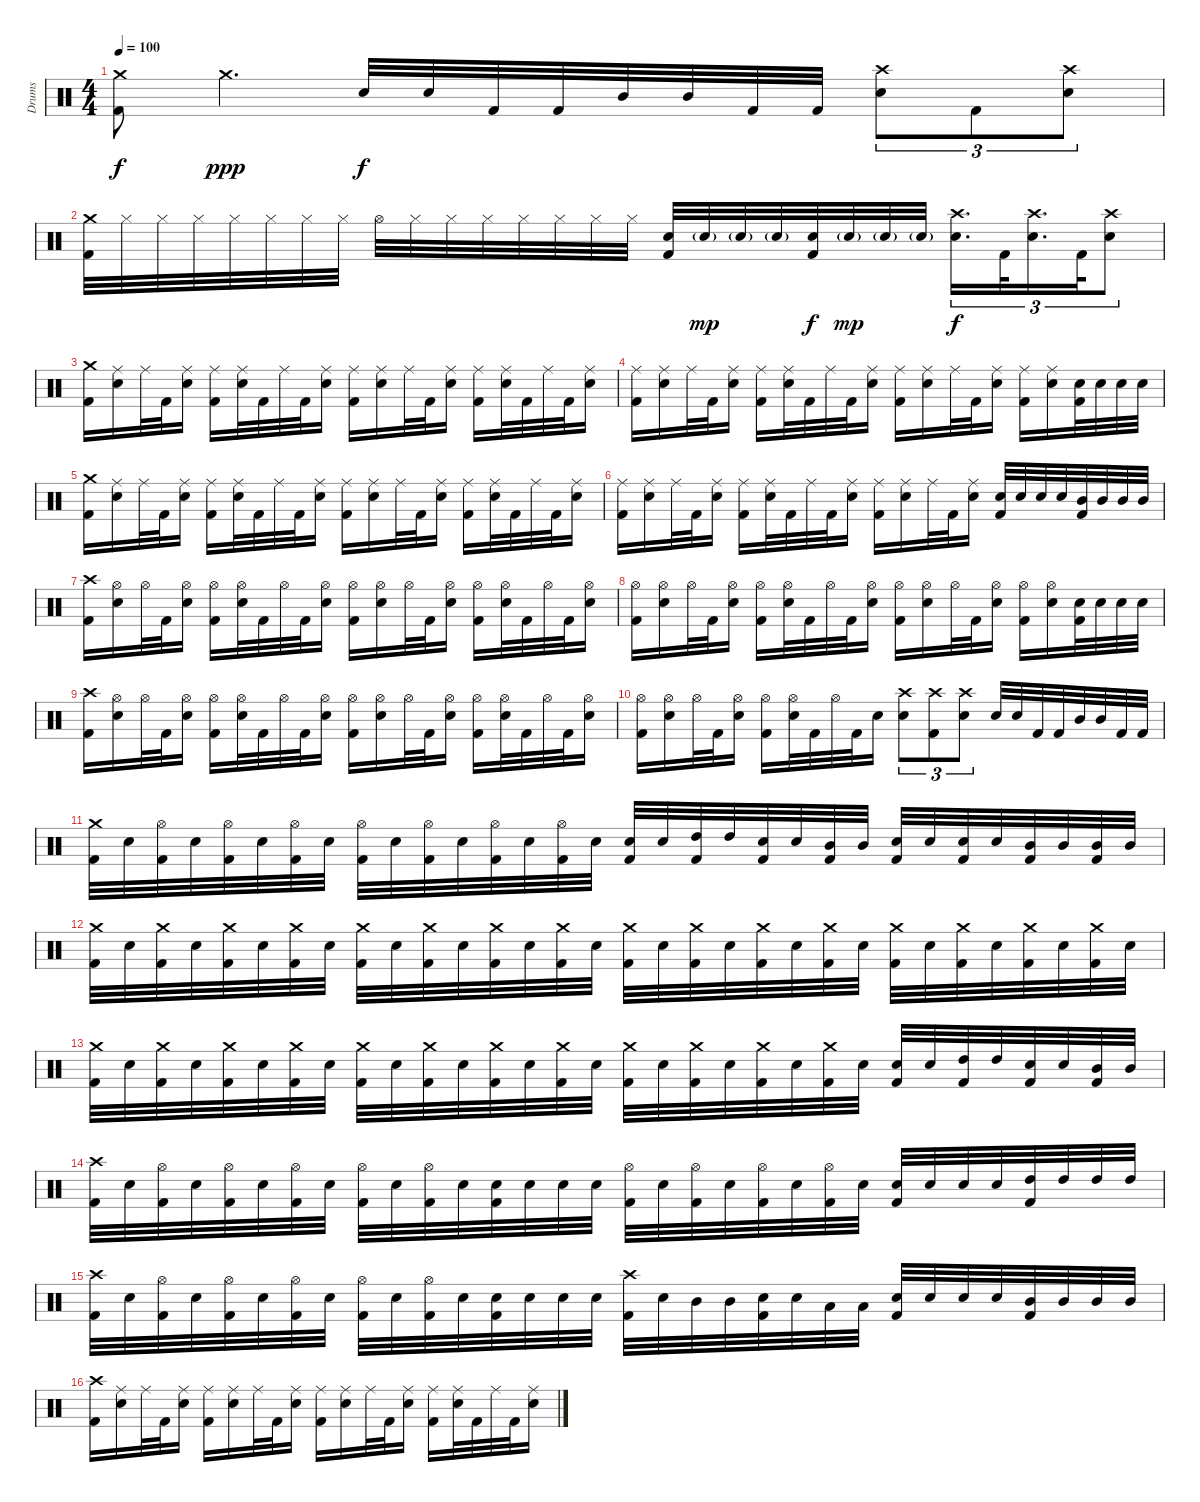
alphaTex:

\track ("Drums" "Drums") {instrument percussion}
\staff {score}
\articulation defaults
\ts (4 4)
\tempo 100
\clef neutral
\ks c
("Crash medium (hit)" "Kick (hit) 2").8{dy f} "Crash medium (hit)".4{d dy ppp} "Electric Snare (hit)".32{dy f} "Electric Snare (hit)".32 "Kick (hit) 2".32 "Kick (hit) 2".32 "Mid Tom (hit)".32 "Mid Tom (hit)".32 "Kick (hit) 2".32 "Kick (hit) 2".32 ("Crash high (hit)" "Electric Snare (hit)").8{tu (3 2)} "Kick (hit) 2".8{tu (3 2)} ("Crash high (hit)" "Electric Snare (hit)").8{tu (3 2)} |
("Crash medium (hit)" "Kick (hit) 2").32 "Hi-Hat (closed)".32 "Hi-Hat (closed)".32 "Hi-Hat (closed)".32 "Hi-Hat (closed)".32 "Hi-Hat (closed)".32 "Hi-Hat (closed)".32 "Hi-Hat (closed)".32 "Hi-Hat (open)".32 "Hi-Hat (closed)".32 "Hi-Hat (closed)".32 "Hi-Hat (closed)".32 "Hi-Hat (closed)".32 "Hi-Hat (closed)".32 "Hi-Hat (closed)".32 "Hi-Hat (closed)".32 ("Electric Snare (hit)" "Kick (hit) 2").32 "Electric Snare (hit)"{g}.32{dy mp} "Electric Snare (hit)"{g}.32 "Electric Snare (hit)"{g}.32 ("Electric Snare (hit)" "Kick (hit) 2").32{dy f} "Electric Snare (hit)"{g}.32{dy mp} "Electric Snare (hit)"{g}.32 "Electric Snare (hit)"{g}.32 ("Crash high (hit)" "Electric Snare (hit)").16{d tu (3 2) dy f} "Kick (hit) 2".32{tu (3 2)} ("Crash high (hit)" "Electric Snare (hit)").16{d tu (3 2)} "Kick (hit) 2".32{tu (3 2)} ("Crash high (hit)" "Electric Snare (hit)").8{tu (3 2)} |
("Crash medium (hit)" "Kick (hit) 2").16 ("Ride (middle)" "Electric Snare (hit)").16 "Ride (middle)".32 "Kick (hit) 2".32 ("Ride (middle)" "Electric Snare (hit)").16 ("Ride (middle)" "Kick (hit) 2").16 ("Ride (middle)" "Electric Snare (hit)").32 "Kick (hit) 2".32 "Ride (middle)".32 "Kick (hit) 2".32 ("Ride (middle)" "Electric Snare (hit)").16 ("Ride (middle)" "Kick (hit) 2").16 ("Ride (middle)" "Electric Snare (hit)").16 "Ride (middle)".32 "Kick (hit) 2".32 ("Ride (middle)" "Electric Snare (hit)").16 ("Ride (middle)" "Kick (hit) 2").16 ("Ride (middle)" "Electric Snare (hit)").32 "Kick (hit) 2".32 "Ride (middle)".32 "Kick (hit) 2".32 ("Ride (middle)" "Electric Snare (hit)").16 |
("Ride (middle)" "Kick (hit) 2").16 ("Ride (middle)" "Electric Snare (hit)").16 "Ride (middle)".32 "Kick (hit) 2".32 ("Ride (middle)" "Electric Snare (hit)").16 ("Ride (middle)" "Kick (hit) 2").16 ("Ride (middle)" "Electric Snare (hit)").32 "Kick (hit) 2".32 "Ride (middle)".32 "Kick (hit) 2".32 ("Ride (middle)" "Electric Snare (hit)").16 ("Ride (middle)" "Kick (hit) 2").16 ("Ride (middle)" "Electric Snare (hit)").16 "Ride (middle)".32 "Kick (hit) 2".32 ("Ride (middle)" "Electric Snare (hit)").16 ("Ride (middle)" "Kick (hit) 2").16 ("Ride (middle)" "Electric Snare (hit)").16 ("Electric Snare (hit)" "Kick (hit) 2").32 "Electric Snare (hit)".32 "Electric Snare (hit)".32 "Electric Snare (hit)".32 |
("Crash medium (hit)" "Kick (hit) 2").16 ("Ride (middle)" "Electric Snare (hit)").16 "Ride (middle)".32 "Kick (hit) 2".32 ("Ride (middle)" "Electric Snare (hit)").16 ("Ride (middle)" "Kick (hit) 2").16 ("Ride (middle)" "Electric Snare (hit)").32 "Kick (hit) 2".32 "Ride (middle)".32 "Kick (hit) 2".32 ("Ride (middle)" "Electric Snare (hit)").16 ("Ride (middle)" "Kick (hit) 2").16 ("Ride (middle)" "Electric Snare (hit)").16 "Ride (middle)".32 "Kick (hit) 2".32 ("Ride (middle)" "Electric Snare (hit)").16 ("Ride (middle)" "Kick (hit) 2").16 ("Ride (middle)" "Electric Snare (hit)").32 "Kick (hit) 2".32 "Ride (middle)".32 "Kick (hit) 2".32 ("Ride (middle)" "Electric Snare (hit)").16 |
("Ride (middle)" "Kick (hit) 2").16 ("Ride (middle)" "Electric Snare (hit)").16 "Ride (middle)".32 "Kick (hit) 2".32 ("Ride (middle)" "Electric Snare (hit)").16 ("Ride (middle)" "Kick (hit) 2").16 ("Ride (middle)" "Electric Snare (hit)").32 "Kick (hit) 2".32 "Ride (middle)".32 "Kick (hit) 2".32 ("Ride (middle)" "Electric Snare (hit)").16 ("Ride (middle)" "Kick (hit) 2").16 ("Ride (middle)" "Electric Snare (hit)").16 "Ride (middle)".32 "Kick (hit) 2".32 ("Ride (middle)" "Electric Snare (hit)").16 ("Electric Snare (hit)" "Kick (hit) 2").32 "Electric Snare (hit)".32 "Electric Snare (hit)".32 "Electric Snare (hit)".32 ("Mid Tom (hit)" "Kick (hit) 2").32 "Mid Tom (hit)".32 "Mid Tom (hit)".32 "Mid Tom (hit)".32 |
("Crash high (hit)" "Kick (hit) 2").16 ("Hi-Hat (open)" "Electric Snare (hit)").16 "Hi-Hat (open)".32 "Kick (hit) 2".32 ("Hi-Hat (open)" "Electric Snare (hit)").16 ("Hi-Hat (open)" "Kick (hit) 2").16 ("Hi-Hat (open)" "Electric Snare (hit)").32 "Kick (hit) 2".32 "Hi-Hat (open)".32 "Kick (hit) 2".32 ("Hi-Hat (open)" "Electric Snare (hit)").16 ("Hi-Hat (open)" "Kick (hit) 2").16 ("Hi-Hat (open)" "Electric Snare (hit)").16 "Hi-Hat (open)".32 "Kick (hit) 2".32 ("Hi-Hat (open)" "Electric Snare (hit)").16 ("Hi-Hat (open)" "Kick (hit) 2").16 ("Hi-Hat (open)" "Electric Snare (hit)").32 "Kick (hit) 2".32 "Hi-Hat (open)".32 "Kick (hit) 2".32 ("Hi-Hat (open)" "Electric Snare (hit)").16 |
("Hi-Hat (open)" "Kick (hit) 2").16 ("Hi-Hat (open)" "Electric Snare (hit)").16 "Hi-Hat (open)".32 "Kick (hit) 2".32 ("Hi-Hat (open)" "Electric Snare (hit)").16 ("Hi-Hat (open)" "Kick (hit) 2").16 ("Hi-Hat (open)" "Electric Snare (hit)").32 "Kick (hit) 2".32 "Hi-Hat (open)".32 "Kick (hit) 2".32 ("Hi-Hat (open)" "Electric Snare (hit)").16 ("Hi-Hat (open)" "Kick (hit) 2").16 ("Hi-Hat (open)" "Electric Snare (hit)").16 "Hi-Hat (open)".32 "Kick (hit) 2".32 ("Hi-Hat (open)" "Electric Snare (hit)").16 ("Hi-Hat (open)" "Kick (hit) 2").16 ("Hi-Hat (open)" "Electric Snare (hit)").16 ("Electric Snare (hit)" "Kick (hit) 2").32 "Electric Snare (hit)".32 "Electric Snare (hit)".32 "Electric Snare (hit)".32 |
("Crash high (hit)" "Kick (hit) 2").16 ("Hi-Hat (open)" "Electric Snare (hit)").16 "Hi-Hat (open)".32 "Kick (hit) 2".32 ("Hi-Hat (open)" "Electric Snare (hit)").16 ("Hi-Hat (open)" "Kick (hit) 2").16 ("Hi-Hat (open)" "Electric Snare (hit)").32 "Kick (hit) 2".32 "Hi-Hat (open)".32 "Kick (hit) 2".32 ("Hi-Hat (open)" "Electric Snare (hit)").16 ("Hi-Hat (open)" "Kick (hit) 2").16 ("Hi-Hat (open)" "Electric Snare (hit)").16 "Hi-Hat (open)".32 "Kick (hit) 2".32 ("Hi-Hat (open)" "Electric Snare (hit)").16 ("Hi-Hat (open)" "Kick (hit) 2").16 ("Hi-Hat (open)" "Electric Snare (hit)").32 "Kick (hit) 2".32 "Hi-Hat (open)".32 "Kick (hit) 2".32 ("Hi-Hat (open)" "Electric Snare (hit)").16 |
("Hi-Hat (open)" "Kick (hit) 2").16 ("Hi-Hat (open)" "Electric Snare (hit)").16 "Hi-Hat (open)".32 "Kick (hit) 2".32 ("Hi-Hat (open)" "Electric Snare (hit)").16 ("Hi-Hat (open)" "Kick (hit) 2").16 ("Hi-Hat (open)" "Electric Snare (hit)").32 "Kick (hit) 2".32 "Hi-Hat (open)".32 "Kick (hit) 2".32 "Electric Snare (hit)".16 ("Crash high (hit)" "Electric Snare (hit)").8{tu (3 2)} ("Crash high (hit)" "Kick (hit) 2").8{tu (3 2)} ("Crash high (hit)" "Electric Snare (hit)").8{tu (3 2)} "Electric Snare (hit)".32 "Electric Snare (hit)".32 "Kick (hit) 2".32 "Kick (hit) 2".32 "Mid Tom (hit)".32 "Mid Tom (hit)".32 "Kick (hit) 2".32 "Kick (hit) 2".32 |
("Crash medium (hit)" "Kick (hit) 2").32 "Electric Snare (hit)".32 ("Hi-Hat (open)" "Kick (hit) 2").32 "Electric Snare (hit)".32 ("Hi-Hat (open)" "Kick (hit) 2").32 "Electric Snare (hit)".32 ("Hi-Hat (open)" "Kick (hit) 2").32 "Electric Snare (hit)".32 ("Hi-Hat (open)" "Kick (hit) 2").32 "Electric Snare (hit)".32 ("Hi-Hat (open)" "Kick (hit) 2").32 "Electric Snare (hit)".32 ("Hi-Hat (open)" "Kick (hit) 2").32 "Electric Snare (hit)".32 ("Hi-Hat (open)" "Kick (hit) 2").32 "Electric Snare (hit)".32 ("Electric Snare (hit)" "Kick (hit) 2").32 "Electric Snare (hit)".32 ("High Tom (hit)" "Kick (hit) 2").32 "High Tom (hit)".32 ("Electric Snare (hit)" "Kick (hit) 2").32 "Electric Snare (hit)".32 ("Mid Tom (hit)" "Kick (hit) 2").32 "Mid Tom (hit)".32 ("Electric Snare (hit)" "Kick (hit) 2").32 "Electric Snare (hit)".32 ("Electric Snare (hit)" "Kick (hit) 2").32 "Electric Snare (hit)".32 ("Mid Tom (hit)" "Kick (hit) 2").32 "Mid Tom (hit)".32 ("Mid Tom (hit)" "Kick (hit) 2").32 "Mid Tom (hit)".32 |
("Crash medium (hit)" "Kick (hit) 2").32 "Electric Snare (hit)".32 ("Crash medium (hit)" "Kick (hit) 2").32 "Electric Snare (hit)".32 ("Crash medium (hit)" "Kick (hit) 2").32 "Electric Snare (hit)".32 ("Crash medium (hit)" "Kick (hit) 2").32 "Electric Snare (hit)".32 ("Crash medium (hit)" "Kick (hit) 2").32 "Electric Snare (hit)".32 ("Crash medium (hit)" "Kick (hit) 2").32 "Electric Snare (hit)".32 ("Crash medium (hit)" "Kick (hit) 2").32 "Electric Snare (hit)".32 ("Crash medium (hit)" "Kick (hit) 2").32 "Electric Snare (hit)".32 ("Crash medium (hit)" "Kick (hit) 2").32 "Electric Snare (hit)".32 ("Crash medium (hit)" "Kick (hit) 2").32 "Electric Snare (hit)".32 ("Crash medium (hit)" "Kick (hit) 2").32 "Electric Snare (hit)".32 ("Crash medium (hit)" "Kick (hit) 2").32 "Electric Snare (hit)".32 ("Crash medium (hit)" "Kick (hit) 2").32 "Electric Snare (hit)".32 ("Crash medium (hit)" "Kick (hit) 2").32 "Electric Snare (hit)".32 ("Crash medium (hit)" "Kick (hit) 2").32 "Electric Snare (hit)".32 ("Crash medium (hit)" "Kick (hit) 2").32 "Electric Snare (hit)".32 |
("Crash medium (hit)" "Kick (hit) 2").32 "Electric Snare (hit)".32 ("Crash medium (hit)" "Kick (hit) 2").32 "Electric Snare (hit)".32 ("Crash medium (hit)" "Kick (hit) 2").32 "Electric Snare (hit)".32 ("Crash medium (hit)" "Kick (hit) 2").32 "Electric Snare (hit)".32 ("Crash medium (hit)" "Kick (hit) 2").32 "Electric Snare (hit)".32 ("Crash medium (hit)" "Kick (hit) 2").32 "Electric Snare (hit)".32 ("Crash medium (hit)" "Kick (hit) 2").32 "Electric Snare (hit)".32 ("Crash medium (hit)" "Kick (hit) 2").32 "Electric Snare (hit)".32 ("Crash medium (hit)" "Kick (hit) 2").32 "Electric Snare (hit)".32 ("Crash medium (hit)" "Kick (hit) 2").32 "Electric Snare (hit)".32 ("Crash medium (hit)" "Kick (hit) 2").32 "Electric Snare (hit)".32 ("Crash medium (hit)" "Kick (hit) 2").32 "Electric Snare (hit)".32 ("Electric Snare (hit)" "Kick (hit) 2").32 "Electric Snare (hit)".32 ("High Tom (hit)" "Kick (hit) 2").32 "High Tom (hit)".32 ("Electric Snare (hit)" "Kick (hit) 2").32 "Electric Snare (hit)".32 ("Mid Tom (hit)" "Kick (hit) 2").32 "Mid Tom (hit)".32 |
("Crash high (hit)" "Kick (hit) 2").32 "Electric Snare (hit)".32 ("Hi-Hat (open)" "Kick (hit) 2").32 "Electric Snare (hit)".32 ("Hi-Hat (open)" "Kick (hit) 2").32 "Electric Snare (hit)".32 ("Hi-Hat (open)" "Kick (hit) 2").32 "Electric Snare (hit)".32 ("Hi-Hat (open)" "Kick (hit) 2").32 "Electric Snare (hit)".32 ("Hi-Hat (open)" "Kick (hit) 2").32 "Electric Snare (hit)".32 ("Electric Snare (hit)" "Kick (hit) 2").32 "Electric Snare (hit)".32 "Electric Snare (hit)".32 "Electric Snare (hit)".32 ("Hi-Hat (open)" "Kick (hit) 2").32 "Electric Snare (hit)".32 ("Hi-Hat (open)" "Kick (hit) 2").32 "Electric Snare (hit)".32 ("Hi-Hat (open)" "Kick (hit) 2").32 "Electric Snare (hit)".32 ("Hi-Hat (open)" "Kick (hit) 2").32 "Electric Snare (hit)".32 ("Electric Snare (hit)" "Kick (hit) 2").32 "Electric Snare (hit)".32 "Electric Snare (hit)".32 "Electric Snare (hit)".32 ("High Tom (hit)" "Kick (hit) 2").32 "High Tom (hit)".32 "High Tom (hit)".32 "High Tom (hit)".32 |
("Crash high (hit)" "Kick (hit) 2").32 "Electric Snare (hit)".32 ("Hi-Hat (open)" "Kick (hit) 2").32 "Electric Snare (hit)".32 ("Hi-Hat (open)" "Kick (hit) 2").32 "Electric Snare (hit)".32 ("Hi-Hat (open)" "Kick (hit) 2").32 "Electric Snare (hit)".32 ("Hi-Hat (open)" "Kick (hit) 2").32 "Electric Snare (hit)".32 ("Hi-Hat (open)" "Kick (hit) 2").32 "Electric Snare (hit)".32 ("Electric Snare (hit)" "Kick (hit) 2").32 "Electric Snare (hit)".32 "Electric Snare (hit)".32 "Electric Snare (hit)".32 ("Crash high (hit)" "Kick (hit) 2").32 "Electric Snare (hit)".32 "Mid Tom (hit)".32 "Mid Tom (hit)".32 ("Electric Snare (hit)" "Kick (hit) 2").32 "Electric Snare (hit)".32 "Low Tom (hit)".32 "Low Tom (hit)".32 ("Electric Snare (hit)" "Kick (hit) 2").32 "Electric Snare (hit)".32 "Electric Snare (hit)".32 "Electric Snare (hit)".32 ("Mid Tom (hit)" "Kick (hit) 2").32 "Mid Tom (hit)".32 "Mid Tom (hit)".32 "Mid Tom (hit)".32 |
("Crash high (hit)" "Kick (hit) 2").16 ("Ride (middle)" "Electric Snare (hit)").16 "Ride (middle)".32 "Kick (hit) 2".32 ("Ride (middle)" "Electric Snare (hit)").16 ("Ride (middle)" "Kick (hit) 2").16 ("Ride (middle)" "Electric Snare (hit)").16 "Ride (middle)".32 "Kick (hit) 2".32 ("Ride (middle)" "Electric Snare (hit)").16 ("Ride (middle)" "Kick (hit) 2").16 ("Ride (middle)" "Electric Snare (hit)").16 "Ride (middle)".32 "Kick (hit) 2".32 ("Ride (middle)" "Electric Snare (hit)").16 ("Ride (middle)" "Kick (hit) 2").16 ("Ride (middle)" "Electric Snare (hit)").32 "Kick (hit) 2".32 "Ride (middle)".32 "Kick (hit) 2".32 ("Ride (middle)" "Electric Snare (hit)").16
